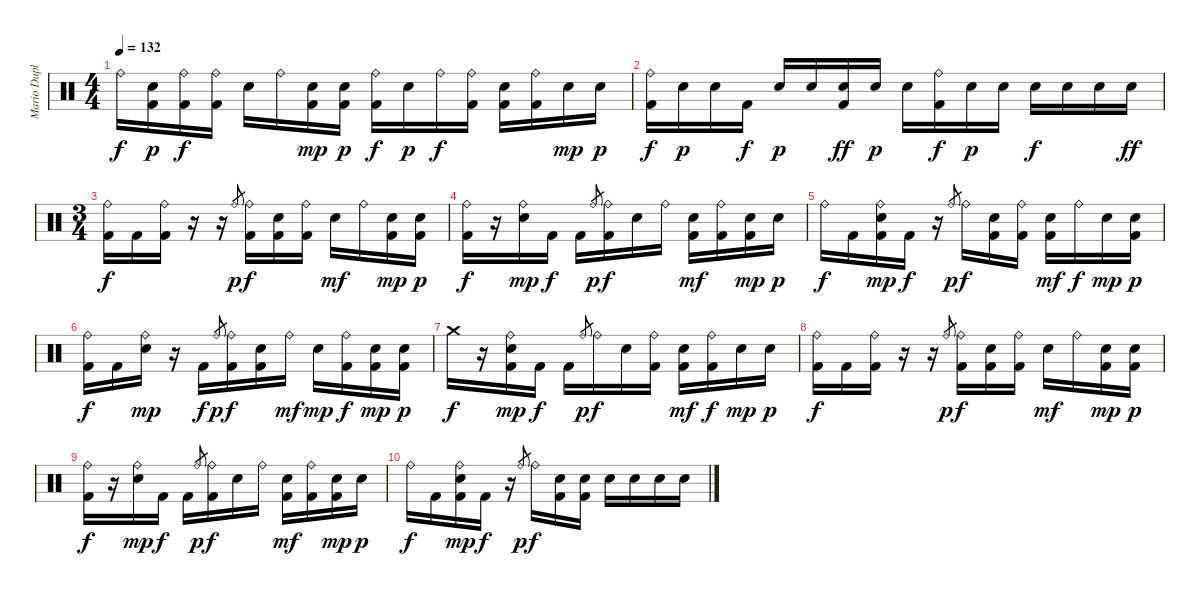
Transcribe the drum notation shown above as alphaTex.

\track ("Mario Duplantier" "Mario Dupl") {instrument percussion}
\staff {score}
\articulation defaults
\ts (4 4)
\tempo 132
\clef neutral
\ks c "Ride (bell)".16{dy f}
("Electric Snare (hit)" "Kick (hit) 2").16{dy p} ("Ride (bell)" "Kick (hit) 2").16{dy f} ("Ride (bell)" "Kick (hit) 2").16 "Electric Snare (hit)".16 "Ride (bell)".16 ("Electric Snare (hit)" "Kick (hit) 2").16{dy mp} ("Electric Snare (hit)" "Kick (hit) 2").16{dy p} ("Ride (bell)" "Kick (hit) 2").16{dy f} "Electric Snare (hit)".16{dy p} "Ride (bell)".16{dy f} ("Ride (bell)" "Kick (hit) 2").16 ("Electric Snare (hit)" "Kick (hit) 2").16 ("Ride (bell)" "Kick (hit) 2").16 "Electric Snare (hit)".16{dy mp} "Electric Snare (hit)".16{dy p} |
("Ride (bell)" "Kick (hit) 2").16{dy f} "Electric Snare (hit)".16{dy p} "Electric Snare (hit)".16 "Kick (hit) 2".16{dy f} "Electric Snare (hit)".16{dy p} "Electric Snare (hit)".16 ("Electric Snare (hit)" "Kick (hit) 2").16{dy ff} "Electric Snare (hit)".16{dy p} "Electric Snare (hit)".16 ("Ride (bell)" "Kick (hit) 2").16{dy f} "Electric Snare (hit)".16{dy p} "Electric Snare (hit)".16 "Electric Snare (hit)".16{dy f} "Electric Snare (hit)".16 "Electric Snare (hit)".16 "Electric Snare (hit)".16{dy ff} |
\ts (3 4)
("Ride (bell)" "Kick (hit) 2").16{dy f} "Kick (hit) 2".16 ("Ride (bell)" "Kick (hit) 2").16 r.16 r.16 "Ride (bell)".8{gr dy p} ("Ride (bell)" "Kick (hit) 2").16{dy f} ("Electric Snare (hit)" "Kick (hit) 2").16 ("Ride (bell)" "Kick (hit) 2").16 "Electric Snare (hit)".16{dy mf} "Ride (bell)".16 ("Electric Snare (hit)" "Kick (hit) 2").16{dy mp} ("Electric Snare (hit)" "Kick (hit) 2").16{dy p} |
("Ride (bell)" "Kick (hit) 2").16{dy f} r.16 ("Ride (bell)" "Electric Snare (hit)").16{dy mp} "Kick (hit) 2".16{dy f} "Kick (hit) 2".16 "Ride (bell)".8{gr dy p} ("Ride (bell)" "Kick (hit) 2").16{dy f} "Electric Snare (hit)".16 "Ride (bell)".16 ("Electric Snare (hit)" "Kick (hit) 2").16{dy mf} ("Ride (bell)" "Kick (hit) 2").16 ("Electric Snare (hit)" "Kick (hit) 2").16{dy mp} "Electric Snare (hit)".16{dy p} |
"Ride (bell)".16{dy f} "Kick (hit) 2".16 ("Ride (bell)" "Electric Snare (hit)" "Kick (hit) 2").16{dy mp} "Kick (hit) 2".16{dy f} r.16 "Ride (bell)".8{gr dy p} "Ride (bell)".16{dy f} ("Electric Snare (hit)" "Kick (hit) 2").16 ("Ride (bell)" "Kick (hit) 2").16 ("Electric Snare (hit)" "Kick (hit) 2").16{dy mf} "Ride (bell)".16{dy f} "Electric Snare (hit)".16{dy mp} ("Electric Snare (hit)" "Kick (hit) 2").16{dy p} |
("Ride (bell)" "Kick (hit) 2").16{dy f} "Kick (hit) 2".16 ("Ride (bell)" "Electric Snare (hit)").16{dy mp} r.16 "Kick (hit) 2".16{dy f} "Ride (bell)".8{gr dy p} ("Ride (bell)" "Kick (hit) 2").16{dy f} ("Electric Snare (hit)" "Kick (hit) 2").16 "Ride (bell)".16{dy mf} "Electric Snare (hit)".16{dy mp} ("Ride (bell)" "Kick (hit) 2").16{dy f} ("Electric Snare (hit)" "Kick (hit) 2").16{dy mp} ("Electric Snare (hit)" "Kick (hit) 2").16{dy p} |
"Crash medium (hit)".16{dy f} r.16 ("Ride (bell)" "Electric Snare (hit)" "Kick (hit) 2").16{dy mp} "Kick (hit) 2".16{dy f} "Kick (hit) 2".16 "Ride (bell)".8{gr dy p} "Ride (bell)".16{dy f} "Electric Snare (hit)".16 ("Ride (bell)" "Kick (hit) 2").16 ("Electric Snare (hit)" "Kick (hit) 2").16{dy mf} ("Ride (bell)" "Kick (hit) 2").16{dy f} "Electric Snare (hit)".16{dy mp} "Electric Snare (hit)".16{dy p} |
("Ride (bell)" "Kick (hit) 2").16{dy f} "Kick (hit) 2".16 ("Ride (bell)" "Kick (hit) 2").16 r.16 r.16 "Ride (bell)".8{gr dy p} ("Ride (bell)" "Kick (hit) 2").16{dy f} ("Electric Snare (hit)" "Kick (hit) 2").16 ("Ride (bell)" "Kick (hit) 2").16 "Electric Snare (hit)".16{dy mf} "Ride (bell)".16 ("Electric Snare (hit)" "Kick (hit) 2").16{dy mp} ("Electric Snare (hit)" "Kick (hit) 2").16{dy p} |
("Ride (bell)" "Kick (hit) 2").16{dy f} r.16 ("Ride (bell)" "Electric Snare (hit)").16{dy mp} "Kick (hit) 2".16{dy f} "Kick (hit) 2".16 "Ride (bell)".8{gr dy p} ("Ride (bell)" "Kick (hit) 2").16{dy f} "Electric Snare (hit)".16 "Ride (bell)".16 ("Electric Snare (hit)" "Kick (hit) 2").16{dy mf} ("Ride (bell)" "Kick (hit) 2").16 ("Electric Snare (hit)" "Kick (hit) 2").16{dy mp} "Electric Snare (hit)".16{dy p} |
"Ride (bell)".16{dy f} "Kick (hit) 2".16 ("Ride (bell)" "Electric Snare (hit)" "Kick (hit) 2").16{dy mp} "Kick (hit) 2".16{dy f} r.16 "Ride (bell)".8{gr dy p} "Ride (bell)".16{dy f} ("Electric Snare (hit)" "Kick (hit) 2").16 ("Electric Snare (hit)" "Kick (hit) 2").16 "Electric Snare (hit)".16 "Electric Snare (hit)".16 "Electric Snare (hit)".16 "Electric Snare (hit)".16
